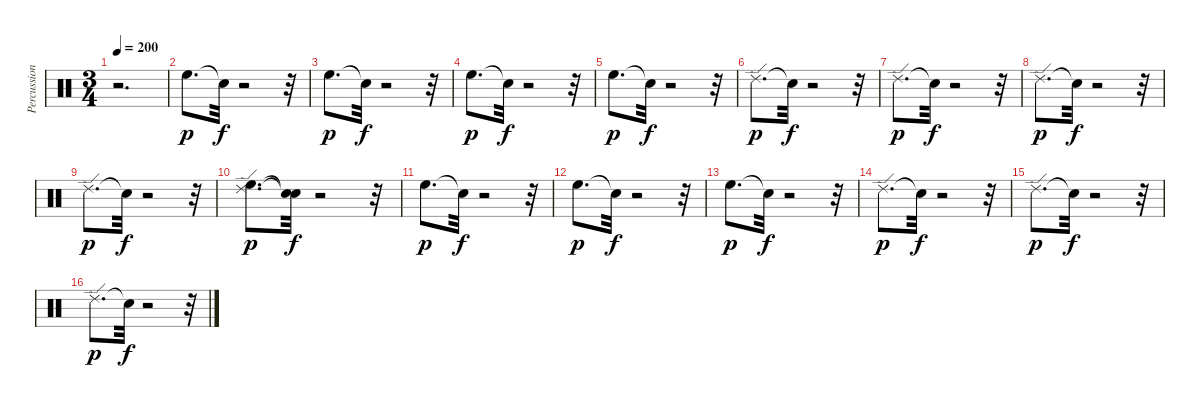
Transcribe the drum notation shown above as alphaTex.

\track ("Percussion." "Percussion") {instrument percussion}
\staff {score}
\articulation defaults
\ts (3 4)
\tempo 200
\clef neutral
\ks c
r.2{d dy f} |
"High Floor Tom (hit)".8{d dy p} "Snare (hit)"{t}.32{dy f} r.2 r.32 |
"High Floor Tom (hit)".8{d dy p} "Snare (hit)"{t}.32{dy f} r.2 r.32 |
"High Floor Tom (hit)".8{d dy p} "Snare (hit)"{t}.32{dy f} r.2 r.32 |
"High Floor Tom (hit)".8{d dy p} "Snare (hit)"{t}.32{dy f} r.2 r.32 |
"Ride (edge) 2".8{d dy p} "Snare (hit)"{t}.32{dy f} r.2 r.32 |
"Ride (edge) 2".8{d dy p} "Snare (hit)"{t}.32{dy f} r.2 r.32 |
"Ride (edge) 2".8{d dy p} "Snare (hit)"{t}.32{dy f} r.2 r.32 |
"Ride (edge) 2".8{d dy p} "Snare (hit)"{t}.32{dy f} r.2 r.32 |
("Ride (edge) 2" "High Floor Tom (hit)").8{d dy p} ("Snare (hit)"{t} "Snare (hit)"{t}).32{dy f} r.2 r.32 |
"High Floor Tom (hit)".8{d dy p} "Snare (hit)"{t}.32{dy f} r.2 r.32 |
"High Floor Tom (hit)".8{d dy p} "Snare (hit)"{t}.32{dy f} r.2 r.32 |
"High Floor Tom (hit)".8{d dy p} "Snare (hit)"{t}.32{dy f} r.2 r.32 |
"Ride (edge) 2".8{d dy p} "Snare (hit)"{t}.32{dy f} r.2 r.32 |
"Ride (edge) 2".8{d dy p} "Snare (hit)"{t}.32{dy f} r.2 r.32 |
"Ride (edge) 2".8{d dy p} "Snare (hit)"{t}.32{dy f} r.2 r.32
